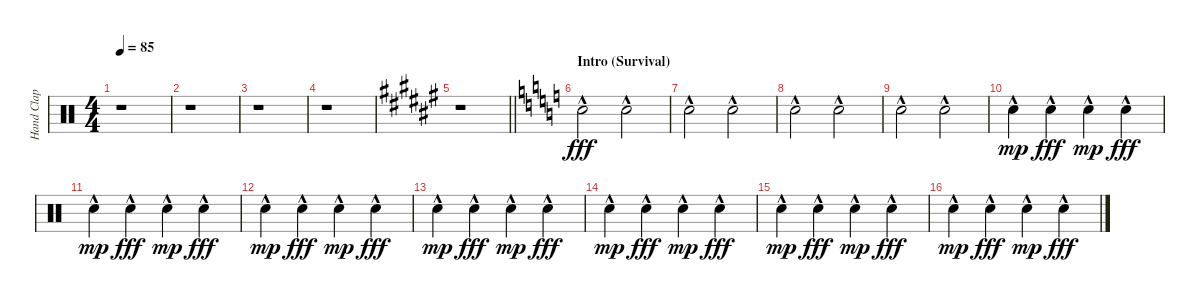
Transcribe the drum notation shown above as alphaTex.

\track ("Hand Clap" "Hand Clap") {instrument percussion}
\staff {score}
\articulation defaults
\ts (4 4)
\tempo 85
\clef neutral
\ks c
r.1{dy fff} |
r.1 |
r.1 |
r.1 |
\barLineRight lightlight
\ks f#
r.1 |
\section ("" "Intro (Survival)")
\ks c "Hand Clap (hit)"{hac}.2 "Hand Clap (hit)"{hac}.2
|
"Hand Clap (hit)"{hac}.2 "Hand Clap (hit)"{hac}.2 |
"Hand Clap (hit)"{hac}.2 "Hand Clap (hit)"{hac}.2 |
"Hand Clap (hit)"{hac}.2 "Hand Clap (hit)"{hac}.2 |
"Hand Clap (hit)"{hac}.4{dy mp} "Hand Clap (hit)"{hac}.4{dy fff} "Hand Clap (hit)"{hac}.4{dy mp} "Hand Clap (hit)"{hac}.4{dy fff} |
"Hand Clap (hit)"{hac}.4{dy mp} "Hand Clap (hit)"{hac}.4{dy fff} "Hand Clap (hit)"{hac}.4{dy mp} "Hand Clap (hit)"{hac}.4{dy fff} |
"Hand Clap (hit)"{hac}.4{dy mp} "Hand Clap (hit)"{hac}.4{dy fff} "Hand Clap (hit)"{hac}.4{dy mp} "Hand Clap (hit)"{hac}.4{dy fff} |
"Hand Clap (hit)"{hac}.4{dy mp} "Hand Clap (hit)"{hac}.4{dy fff} "Hand Clap (hit)"{hac}.4{dy mp} "Hand Clap (hit)"{hac}.4{dy fff} |
"Hand Clap (hit)"{hac}.4{dy mp} "Hand Clap (hit)"{hac}.4{dy fff} "Hand Clap (hit)"{hac}.4{dy mp} "Hand Clap (hit)"{hac}.4{dy fff} |
"Hand Clap (hit)"{hac}.4{dy mp} "Hand Clap (hit)"{hac}.4{dy fff} "Hand Clap (hit)"{hac}.4{dy mp} "Hand Clap (hit)"{hac}.4{dy fff} |
"Hand Clap (hit)"{hac}.4{dy mp} "Hand Clap (hit)"{hac}.4{dy fff} "Hand Clap (hit)"{hac}.4{dy mp} "Hand Clap (hit)"{hac}.4{dy fff}
